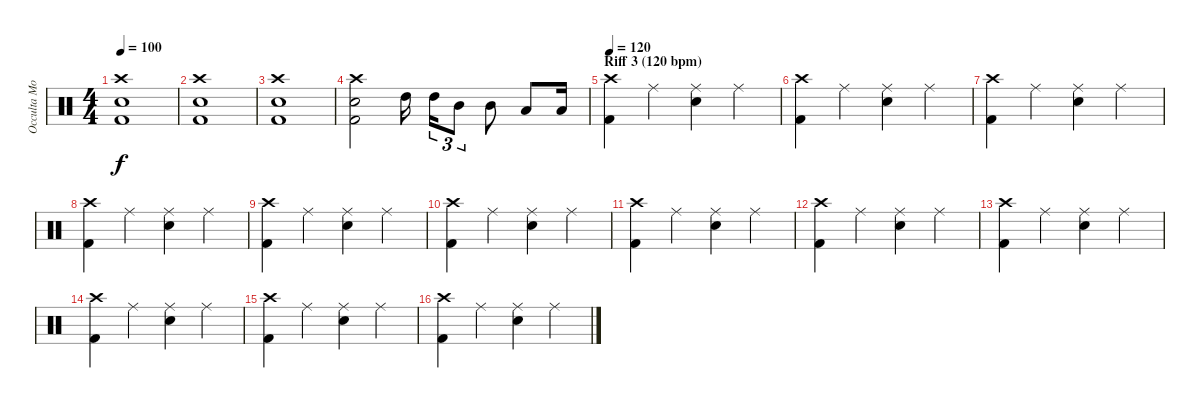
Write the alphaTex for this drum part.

\track ("Occulta Mors (Drums)" "Occulta Mo") {instrument percussion}
\staff {score}
\articulation defaults
\ts (4 4)
\tempo 100
\clef neutral
\ks c
("Crash high (hit)" "Snare (hit) 2" "Kick (hit) 2").1{dy f} |
("Crash high (hit)" "Snare (hit) 2" "Kick (hit) 2").1 |
("Crash high (hit)" "Snare (hit) 2" "Kick (hit) 2").1 |
("Crash high (hit)" "Snare (hit) 2" "Kick (hit) 2").2 "High Tom (hit)".16 "High Tom (hit)".16{tu (3 2)} "Mid Tom (hit)".8{tu (3 2)} "Mid Tom (hit)".8 "Low Tom (hit)".8 "Low Tom (hit)".16 |
\section ("" "Riff 3 (120 bpm)")
\tempo 120
("Crash high (hit)" "Kick (hit) 2").4 "Ride (middle)".4 ("Ride (middle)" "Snare (hit) 2").4 "Ride (middle)".4 |
("Crash high (hit)" "Kick (hit) 2").4 "Ride (middle)".4 ("Ride (middle)" "Snare (hit) 2").4 "Ride (middle)".4 |
("Crash high (hit)" "Kick (hit) 2").4 "Ride (middle)".4 ("Ride (middle)" "Snare (hit) 2").4 "Ride (middle)".4 |
("Crash high (hit)" "Kick (hit) 2").4 "Ride (middle)".4 ("Ride (middle)" "Snare (hit) 2").4 "Ride (middle)".4 |
("Crash high (hit)" "Kick (hit) 2").4 "Ride (middle)".4 ("Ride (middle)" "Snare (hit) 2").4 "Ride (middle)".4 |
("Crash high (hit)" "Kick (hit) 2").4 "Ride (middle)".4 ("Ride (middle)" "Snare (hit) 2").4 "Ride (middle)".4 |
("Crash high (hit)" "Kick (hit) 2").4 "Ride (middle)".4 ("Ride (middle)" "Snare (hit) 2").4 "Ride (middle)".4 |
("Crash high (hit)" "Kick (hit) 2").4 "Ride (middle)".4 ("Ride (middle)" "Snare (hit) 2").4 "Ride (middle)".4 |
("Crash high (hit)" "Kick (hit) 2").4 "Ride (middle)".4 ("Ride (middle)" "Snare (hit) 2").4 "Ride (middle)".4 |
("Crash high (hit)" "Kick (hit) 2").4 "Ride (middle)".4 ("Ride (middle)" "Snare (hit) 2").4 "Ride (middle)".4 |
("Crash high (hit)" "Kick (hit) 2").4 "Ride (middle)".4 ("Ride (middle)" "Snare (hit) 2").4 "Ride (middle)".4 |
("Crash high (hit)" "Kick (hit) 2").4 "Ride (middle)".4 ("Ride (middle)" "Snare (hit) 2").4 "Ride (middle)".4
